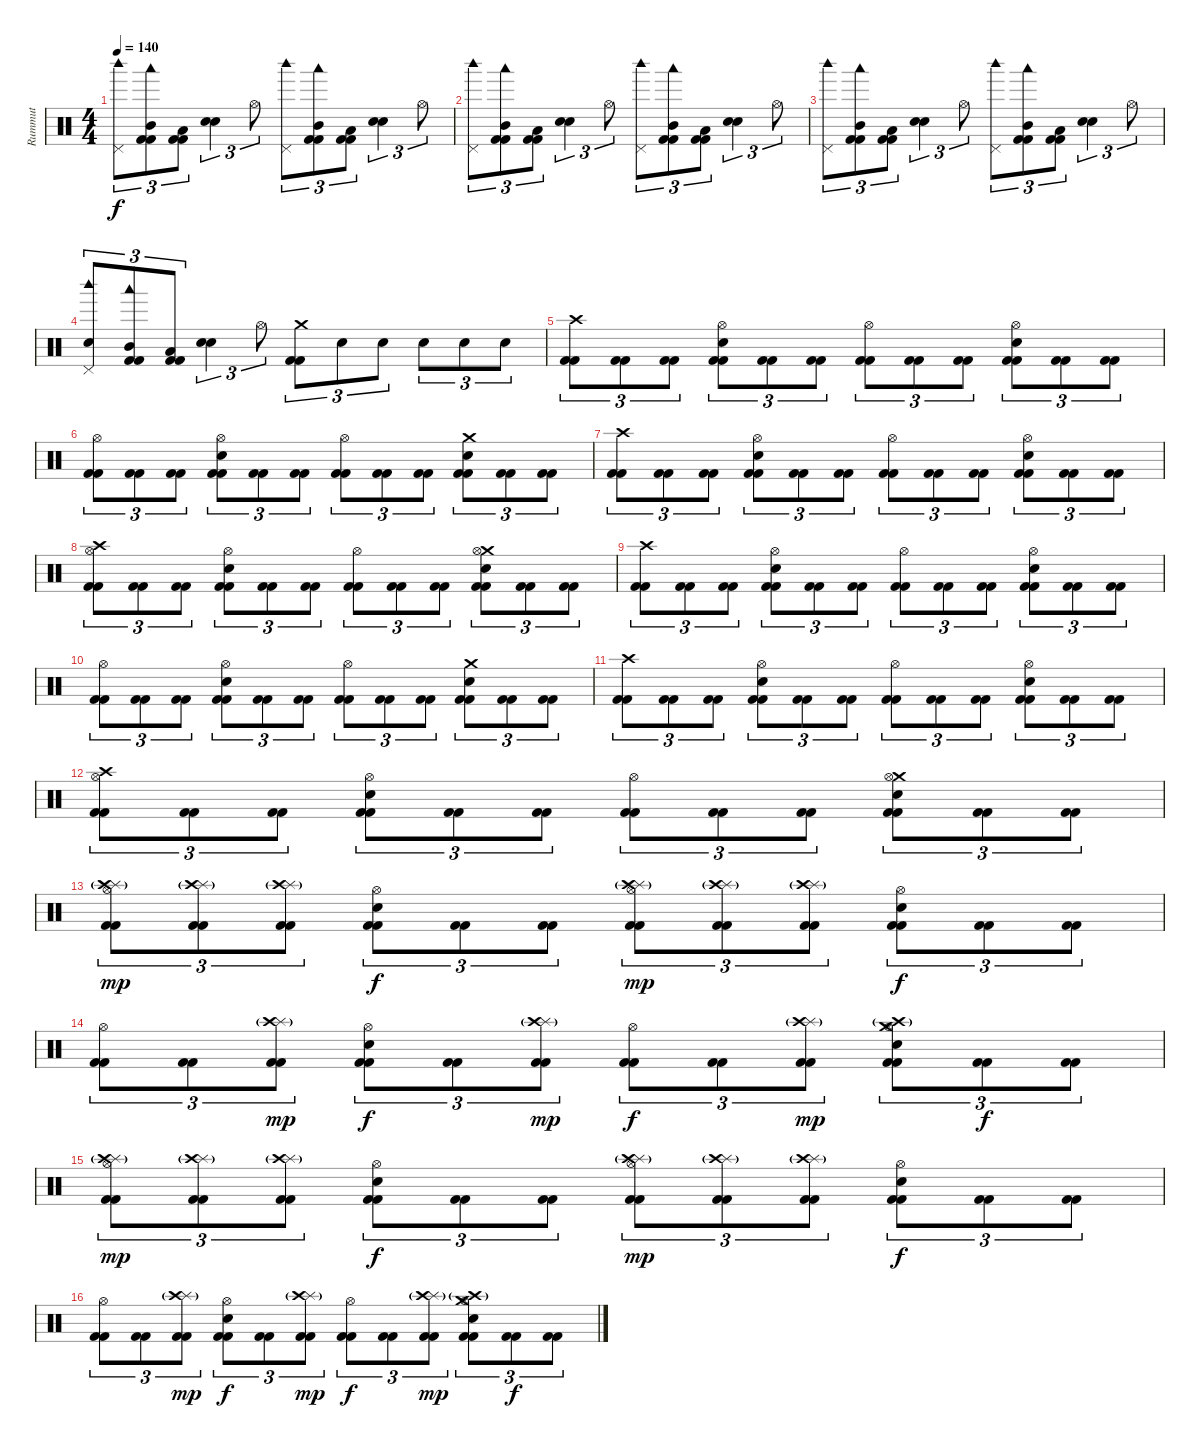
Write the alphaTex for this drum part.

\track ("Rummut" "Rummut") {instrument percussion}
\staff {score}
\articulation defaults
\ts (4 4)
\tempo 140
\clef neutral
\ks c
("Pedal Hi-Hat (hit)" "Woodblock high (hit)").8{tu (3 2) dy f} ("Mid Tom (hit)" "Woodblock low (hit)" "Kick (hit) 2" "Kick (hit) 2").8{tu (3 2)} ("Low Tom (hit)" "Kick (hit) 2" "Kick (hit) 2").8{tu (3 2)} ("Electric Snare (hit)" "Snare (hit) 2").4{tu (3 2)} "Hi-Hat (open)".8{tu (3 2)} ("Pedal Hi-Hat (hit)" "Woodblock high (hit)").8{tu (3 2)} ("Mid Tom (hit)" "Woodblock low (hit)" "Kick (hit) 2" "Kick (hit) 2").8{tu (3 2)} ("Low Tom (hit)" "Kick (hit) 2" "Kick (hit) 2").8{tu (3 2)} ("Electric Snare (hit)" "Snare (hit) 2").4{tu (3 2)} "Hi-Hat (open)".8{tu (3 2)} |
("Pedal Hi-Hat (hit)" "Woodblock high (hit)").8{tu (3 2)} ("Mid Tom (hit)" "Woodblock low (hit)" "Kick (hit) 2" "Kick (hit) 2").8{tu (3 2)} ("Low Tom (hit)" "Kick (hit) 2" "Kick (hit) 2").8{tu (3 2)} ("Electric Snare (hit)" "Snare (hit) 2").4{tu (3 2)} "Hi-Hat (open)".8{tu (3 2)} ("Pedal Hi-Hat (hit)" "Woodblock high (hit)").8{tu (3 2)} ("Mid Tom (hit)" "Woodblock low (hit)" "Kick (hit) 2" "Kick (hit) 2").8{tu (3 2)} ("Low Tom (hit)" "Kick (hit) 2" "Kick (hit) 2").8{tu (3 2)} ("Electric Snare (hit)" "Snare (hit) 2").4{tu (3 2)} "Hi-Hat (open)".8{tu (3 2)} |
("Pedal Hi-Hat (hit)" "Woodblock high (hit)").8{tu (3 2)} ("Mid Tom (hit)" "Woodblock low (hit)" "Kick (hit) 2" "Kick (hit) 2").8{tu (3 2)} ("Low Tom (hit)" "Kick (hit) 2" "Kick (hit) 2").8{tu (3 2)} ("Electric Snare (hit)" "Snare (hit) 2").4{tu (3 2)} "Hi-Hat (open)".8{tu (3 2)} ("Pedal Hi-Hat (hit)" "Woodblock high (hit)").8{tu (3 2)} ("Mid Tom (hit)" "Woodblock low (hit)" "Kick (hit) 2" "Kick (hit) 2").8{tu (3 2)} ("Low Tom (hit)" "Kick (hit) 2" "Kick (hit) 2").8{tu (3 2)} ("Electric Snare (hit)" "Snare (hit) 2").4{tu (3 2)} "Hi-Hat (open)".8{tu (3 2)} |
("Electric Snare (hit)" "Pedal Hi-Hat (hit)" "Woodblock high (hit)").8{tu (3 2)} ("Mid Tom (hit)" "Woodblock low (hit)" "Kick (hit) 2" "Kick (hit) 2").8{tu (3 2)} ("Low Tom (hit)" "Kick (hit) 2" "Kick (hit) 2").8{tu (3 2)} ("Electric Snare (hit)" "Snare (hit) 2").4{tu (3 2)} "Hi-Hat (open)".8{tu (3 2)} ("Crash medium (hit)" "Kick (hit) 2" "Kick (hit) 2").8{tu (3 2)} "Electric Snare (hit)".8{tu (3 2)} "Electric Snare (hit)".8{tu (3 2)} "Electric Snare (hit)".8{tu (3 2)} "Electric Snare (hit)".8{tu (3 2)} "Electric Snare (hit)".8{tu (3 2)} |
("Crash high (hit)" "Kick (hit) 2" "Kick (hit) 2").8{tu (3 2)} ("Kick (hit) 2" "Kick (hit) 2").8{tu (3 2)} ("Kick (hit) 2" "Kick (hit) 2").8{tu (3 2)} ("Hi-Hat (open)" "Electric Snare (hit)" "Kick (hit) 2" "Kick (hit) 2").8{tu (3 2)} ("Kick (hit) 2" "Kick (hit) 2").8{tu (3 2)} ("Kick (hit) 2" "Kick (hit) 2").8{tu (3 2)} ("Hi-Hat (open)" "Kick (hit) 2" "Kick (hit) 2").8{tu (3 2)} ("Kick (hit) 2" "Kick (hit) 2").8{tu (3 2)} ("Kick (hit) 2" "Kick (hit) 2").8{tu (3 2)} ("Hi-Hat (open)" "Electric Snare (hit)" "Kick (hit) 2" "Kick (hit) 2").8{tu (3 2)} ("Kick (hit) 2" "Kick (hit) 2").8{tu (3 2)} ("Kick (hit) 2" "Kick (hit) 2").8{tu (3 2)} |
("Hi-Hat (open)" "Kick (hit) 2" "Kick (hit) 2").8{tu (3 2)} ("Kick (hit) 2" "Kick (hit) 2").8{tu (3 2)} ("Kick (hit) 2" "Kick (hit) 2").8{tu (3 2)} ("Hi-Hat (open)" "Electric Snare (hit)" "Kick (hit) 2" "Kick (hit) 2").8{tu (3 2)} ("Kick (hit) 2" "Kick (hit) 2").8{tu (3 2)} ("Kick (hit) 2" "Kick (hit) 2").8{tu (3 2)} ("Hi-Hat (open)" "Kick (hit) 2" "Kick (hit) 2").8{tu (3 2)} ("Kick (hit) 2" "Kick (hit) 2").8{tu (3 2)} ("Kick (hit) 2" "Kick (hit) 2").8{tu (3 2)} ("Crash medium (hit)" "Electric Snare (hit)" "Kick (hit) 2" "Kick (hit) 2").8{tu (3 2)} ("Kick (hit) 2" "Kick (hit) 2").8{tu (3 2)} ("Kick (hit) 2" "Kick (hit) 2").8{tu (3 2)} |
("Crash high (hit)" "Kick (hit) 2" "Kick (hit) 2").8{tu (3 2)} ("Kick (hit) 2" "Kick (hit) 2").8{tu (3 2)} ("Kick (hit) 2" "Kick (hit) 2").8{tu (3 2)} ("Hi-Hat (open)" "Electric Snare (hit)" "Kick (hit) 2" "Kick (hit) 2").8{tu (3 2)} ("Kick (hit) 2" "Kick (hit) 2").8{tu (3 2)} ("Kick (hit) 2" "Kick (hit) 2").8{tu (3 2)} ("Hi-Hat (open)" "Kick (hit) 2" "Kick (hit) 2").8{tu (3 2)} ("Kick (hit) 2" "Kick (hit) 2").8{tu (3 2)} ("Kick (hit) 2" "Kick (hit) 2").8{tu (3 2)} ("Hi-Hat (open)" "Electric Snare (hit)" "Kick (hit) 2" "Kick (hit) 2").8{tu (3 2)} ("Kick (hit) 2" "Kick (hit) 2").8{tu (3 2)} ("Kick (hit) 2" "Kick (hit) 2").8{tu (3 2)} |
("Crash high (hit)" "Hi-Hat (open)" "Kick (hit) 2" "Kick (hit) 2").8{tu (3 2)} ("Kick (hit) 2" "Kick (hit) 2").8{tu (3 2)} ("Kick (hit) 2" "Kick (hit) 2").8{tu (3 2)} ("Hi-Hat (open)" "Electric Snare (hit)" "Kick (hit) 2" "Kick (hit) 2").8{tu (3 2)} ("Kick (hit) 2" "Kick (hit) 2").8{tu (3 2)} ("Kick (hit) 2" "Kick (hit) 2").8{tu (3 2)} ("Hi-Hat (open)" "Kick (hit) 2" "Kick (hit) 2").8{tu (3 2)} ("Kick (hit) 2" "Kick (hit) 2").8{tu (3 2)} ("Kick (hit) 2" "Kick (hit) 2").8{tu (3 2)} ("Crash medium (hit)" "Hi-Hat (open)" "Electric Snare (hit)" "Kick (hit) 2" "Kick (hit) 2").8{tu (3 2)} ("Kick (hit) 2" "Kick (hit) 2").8{tu (3 2)} ("Kick (hit) 2" "Kick (hit) 2").8{tu (3 2)} |
("Crash high (hit)" "Kick (hit) 2" "Kick (hit) 2").8{tu (3 2)} ("Kick (hit) 2" "Kick (hit) 2").8{tu (3 2)} ("Kick (hit) 2" "Kick (hit) 2").8{tu (3 2)} ("Hi-Hat (open)" "Electric Snare (hit)" "Kick (hit) 2" "Kick (hit) 2").8{tu (3 2)} ("Kick (hit) 2" "Kick (hit) 2").8{tu (3 2)} ("Kick (hit) 2" "Kick (hit) 2").8{tu (3 2)} ("Hi-Hat (open)" "Kick (hit) 2" "Kick (hit) 2").8{tu (3 2)} ("Kick (hit) 2" "Kick (hit) 2").8{tu (3 2)} ("Kick (hit) 2" "Kick (hit) 2").8{tu (3 2)} ("Hi-Hat (open)" "Electric Snare (hit)" "Kick (hit) 2" "Kick (hit) 2").8{tu (3 2)} ("Kick (hit) 2" "Kick (hit) 2").8{tu (3 2)} ("Kick (hit) 2" "Kick (hit) 2").8{tu (3 2)} |
("Hi-Hat (open)" "Kick (hit) 2" "Kick (hit) 2").8{tu (3 2)} ("Kick (hit) 2" "Kick (hit) 2").8{tu (3 2)} ("Kick (hit) 2" "Kick (hit) 2").8{tu (3 2)} ("Hi-Hat (open)" "Electric Snare (hit)" "Kick (hit) 2" "Kick (hit) 2").8{tu (3 2)} ("Kick (hit) 2" "Kick (hit) 2").8{tu (3 2)} ("Kick (hit) 2" "Kick (hit) 2").8{tu (3 2)} ("Hi-Hat (open)" "Kick (hit) 2" "Kick (hit) 2").8{tu (3 2)} ("Kick (hit) 2" "Kick (hit) 2").8{tu (3 2)} ("Kick (hit) 2" "Kick (hit) 2").8{tu (3 2)} ("Crash medium (hit)" "Electric Snare (hit)" "Kick (hit) 2" "Kick (hit) 2").8{tu (3 2)} ("Kick (hit) 2" "Kick (hit) 2").8{tu (3 2)} ("Kick (hit) 2" "Kick (hit) 2").8{tu (3 2)} |
("Crash high (hit)" "Kick (hit) 2" "Kick (hit) 2").8{tu (3 2)} ("Kick (hit) 2" "Kick (hit) 2").8{tu (3 2)} ("Kick (hit) 2" "Kick (hit) 2").8{tu (3 2)} ("Hi-Hat (open)" "Electric Snare (hit)" "Kick (hit) 2" "Kick (hit) 2").8{tu (3 2)} ("Kick (hit) 2" "Kick (hit) 2").8{tu (3 2)} ("Kick (hit) 2" "Kick (hit) 2").8{tu (3 2)} ("Hi-Hat (open)" "Kick (hit) 2" "Kick (hit) 2").8{tu (3 2)} ("Kick (hit) 2" "Kick (hit) 2").8{tu (3 2)} ("Kick (hit) 2" "Kick (hit) 2").8{tu (3 2)} ("Hi-Hat (open)" "Electric Snare (hit)" "Kick (hit) 2" "Kick (hit) 2").8{tu (3 2)} ("Kick (hit) 2" "Kick (hit) 2").8{tu (3 2)} ("Kick (hit) 2" "Kick (hit) 2").8{tu (3 2)} |
("Crash high (hit)" "Hi-Hat (open)" "Kick (hit) 2" "Kick (hit) 2").8{tu (3 2)} ("Kick (hit) 2" "Kick (hit) 2").8{tu (3 2)} ("Kick (hit) 2" "Kick (hit) 2").8{tu (3 2)} ("Hi-Hat (open)" "Electric Snare (hit)" "Kick (hit) 2" "Kick (hit) 2").8{tu (3 2)} ("Kick (hit) 2" "Kick (hit) 2").8{tu (3 2)} ("Kick (hit) 2" "Kick (hit) 2").8{tu (3 2)} ("Hi-Hat (open)" "Kick (hit) 2" "Kick (hit) 2").8{tu (3 2)} ("Kick (hit) 2" "Kick (hit) 2").8{tu (3 2)} ("Kick (hit) 2" "Kick (hit) 2").8{tu (3 2)} ("Crash medium (hit)" "Hi-Hat (open)" "Electric Snare (hit)" "Kick (hit) 2" "Kick (hit) 2").8{tu (3 2)} ("Kick (hit) 2" "Kick (hit) 2").8{tu (3 2)} ("Kick (hit) 2" "Kick (hit) 2").8{tu (3 2)} |
("Splash (hit)" "Crash high (hit)"{g} "Hi-Hat (open)" "Kick (hit) 2" "Kick (hit) 2").8{tu (3 2) dy mp} ("Splash (hit)" "Crash high (hit)"{g} "Kick (hit) 2" "Kick (hit) 2").8{tu (3 2)} ("Splash (hit)" "Crash high (hit)"{g} "Kick (hit) 2" "Kick (hit) 2").8{tu (3 2)} ("Hi-Hat (open)" "Electric Snare (hit)" "Kick (hit) 2" "Kick (hit) 2").8{tu (3 2) dy f} ("Kick (hit) 2" "Kick (hit) 2").8{tu (3 2)} ("Kick (hit) 2" "Kick (hit) 2").8{tu (3 2)} ("Splash (hit)" "Crash high (hit)"{g} "Hi-Hat (open)" "Kick (hit) 2" "Kick (hit) 2").8{tu (3 2) dy mp} ("Splash (hit)" "Crash high (hit)"{g} "Kick (hit) 2" "Kick (hit) 2").8{tu (3 2)} ("Splash (hit)" "Crash high (hit)"{g} "Kick (hit) 2" "Kick (hit) 2").8{tu (3 2)} ("Hi-Hat (open)" "Electric Snare (hit)" "Kick (hit) 2" "Kick (hit) 2").8{tu (3 2) dy f} ("Kick (hit) 2" "Kick (hit) 2").8{tu (3 2)} ("Kick (hit) 2" "Kick (hit) 2").8{tu (3 2)} |
("Hi-Hat (open)" "Kick (hit) 2" "Kick (hit) 2").8{tu (3 2)} ("Kick (hit) 2" "Kick (hit) 2").8{tu (3 2)} ("Splash (hit)" "Crash high (hit)"{g} "Kick (hit) 2" "Kick (hit) 2").8{tu (3 2) dy mp} ("Hi-Hat (open)" "Electric Snare (hit)" "Kick (hit) 2" "Kick (hit) 2").8{tu (3 2) dy f} ("Kick (hit) 2" "Kick (hit) 2").8{tu (3 2)} ("Splash (hit)" "Crash high (hit)"{g} "Kick (hit) 2" "Kick (hit) 2").8{tu (3 2) dy mp} ("Hi-Hat (open)" "Kick (hit) 2" "Kick (hit) 2").8{tu (3 2) dy f} ("Kick (hit) 2" "Kick (hit) 2").8{tu (3 2)} ("Splash (hit)" "Crash high (hit)"{g} "Kick (hit) 2" "Kick (hit) 2").8{tu (3 2) dy mp} ("Crash medium (hit)" "Crash high (hit)"{g} "Hi-Hat (open)" "Electric Snare (hit)" "Kick (hit) 2" "Kick (hit) 2").8{tu (3 2)} ("Kick (hit) 2" "Kick (hit) 2").8{tu (3 2) dy f} ("Kick (hit) 2" "Kick (hit) 2").8{tu (3 2)} |
("Splash (hit)" "Crash high (hit)"{g} "Hi-Hat (open)" "Kick (hit) 2" "Kick (hit) 2").8{tu (3 2) dy mp} ("Splash (hit)" "Crash high (hit)"{g} "Kick (hit) 2" "Kick (hit) 2").8{tu (3 2)} ("Splash (hit)" "Crash high (hit)"{g} "Kick (hit) 2" "Kick (hit) 2").8{tu (3 2)} ("Hi-Hat (open)" "Electric Snare (hit)" "Kick (hit) 2" "Kick (hit) 2").8{tu (3 2) dy f} ("Kick (hit) 2" "Kick (hit) 2").8{tu (3 2)} ("Kick (hit) 2" "Kick (hit) 2").8{tu (3 2)} ("Splash (hit)" "Crash high (hit)"{g} "Hi-Hat (open)" "Kick (hit) 2" "Kick (hit) 2").8{tu (3 2) dy mp} ("Splash (hit)" "Crash high (hit)"{g} "Kick (hit) 2" "Kick (hit) 2").8{tu (3 2)} ("Splash (hit)" "Crash high (hit)"{g} "Kick (hit) 2" "Kick (hit) 2").8{tu (3 2)} ("Hi-Hat (open)" "Electric Snare (hit)" "Kick (hit) 2" "Kick (hit) 2").8{tu (3 2) dy f} ("Kick (hit) 2" "Kick (hit) 2").8{tu (3 2)} ("Kick (hit) 2" "Kick (hit) 2").8{tu (3 2)} |
("Hi-Hat (open)" "Kick (hit) 2" "Kick (hit) 2").8{tu (3 2)} ("Kick (hit) 2" "Kick (hit) 2").8{tu (3 2)} ("Splash (hit)" "Crash high (hit)"{g} "Kick (hit) 2" "Kick (hit) 2").8{tu (3 2) dy mp} ("Hi-Hat (open)" "Electric Snare (hit)" "Kick (hit) 2" "Kick (hit) 2").8{tu (3 2) dy f} ("Kick (hit) 2" "Kick (hit) 2").8{tu (3 2)} ("Splash (hit)" "Crash high (hit)"{g} "Kick (hit) 2" "Kick (hit) 2").8{tu (3 2) dy mp} ("Hi-Hat (open)" "Kick (hit) 2" "Kick (hit) 2").8{tu (3 2) dy f} ("Kick (hit) 2" "Kick (hit) 2").8{tu (3 2)} ("Splash (hit)" "Crash high (hit)"{g} "Kick (hit) 2" "Kick (hit) 2").8{tu (3 2) dy mp} ("Crash medium (hit)" "Crash high (hit)"{g} "Hi-Hat (open)" "Electric Snare (hit)" "Kick (hit) 2" "Kick (hit) 2").8{tu (3 2)} ("Kick (hit) 2" "Kick (hit) 2").8{tu (3 2) dy f} ("Kick (hit) 2" "Kick (hit) 2").8{tu (3 2)}
